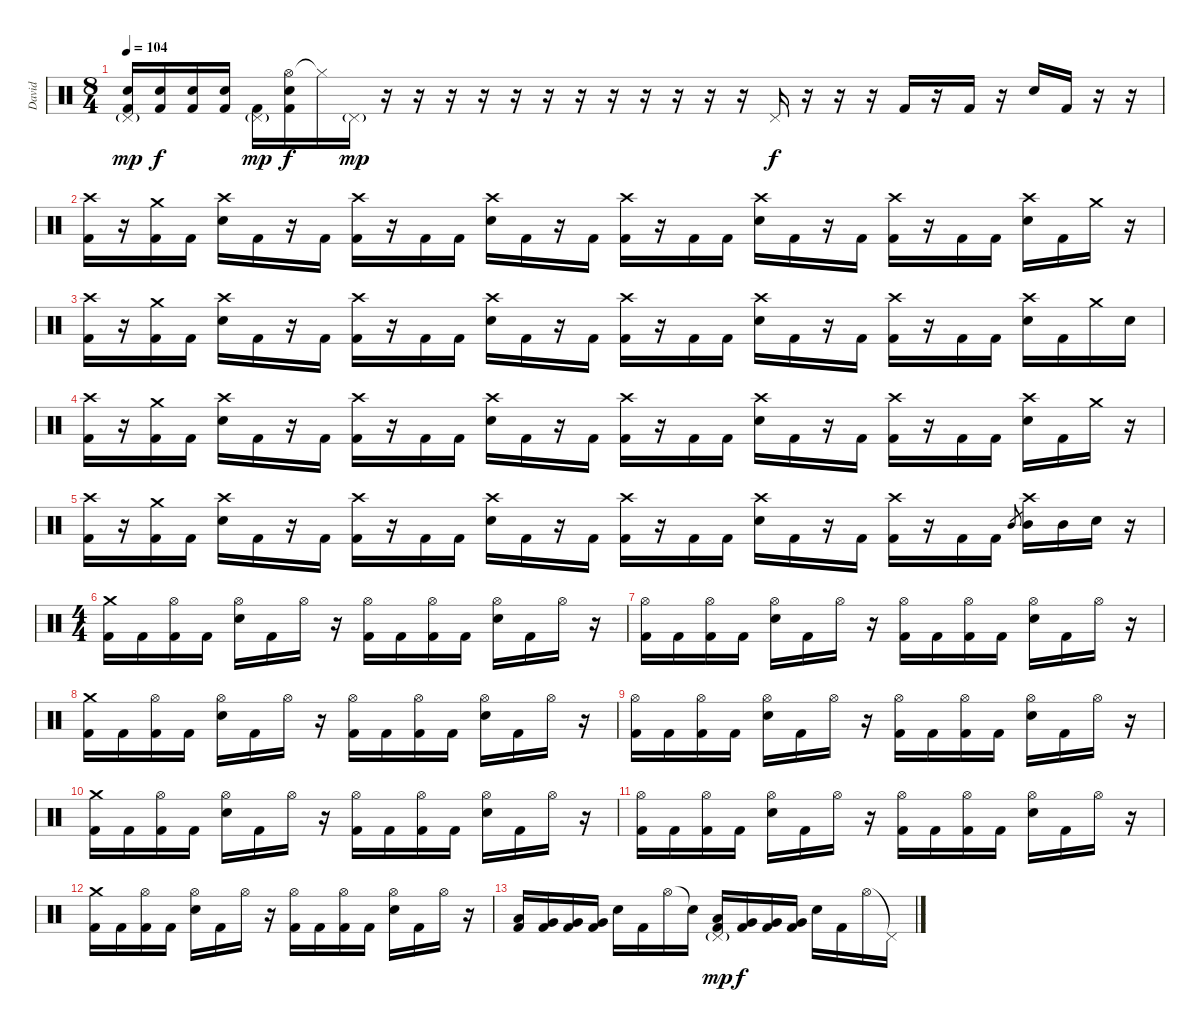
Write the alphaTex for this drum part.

\track ("David" "David") {instrument percussion}
\staff {score}
\articulation defaults
\ts (8 4)
\tempo 104
\clef neutral
\ks c
("Pedal Hi-Hat (hit)"{g} "Snare (hit) 2" "Kick (hit) 2").16{dy mp} ("Snare (hit) 2" "Kick (hit) 2").16{dy f} ("Snare (hit) 2" "Kick (hit) 2").16 ("Snare (hit) 2" "Kick (hit) 2").16 ("Pedal Hi-Hat (hit)"{g} "Kick (hit) 2").16{dy mp} ("Hi-Hat (open)" "Snare (hit) 2" "Kick (hit) 2").16{dy f} "Hi-Hat (closed)"{t}.16 "Pedal Hi-Hat (hit)"{g}.16{dy mp} r.16 r.16 r.16 r.16 r.16 r.16 r.16 r.16 r.16 r.16 r.16 r.16 "Pedal Hi-Hat (hit)".16{dy f} r.16 r.16 r.16 "Kick (hit) 2".16 r.16 "Kick (hit) 2".16 r.16 "Snare (hit) 2".16 "Kick (hit) 2".16 r.16 r.16 |
("Crash high (hit)" "Kick (hit) 2").16 r.16 ("Crash medium (hit)" "Kick (hit) 2").16 "Kick (hit) 2".16 ("Crash high (hit)" "Snare (hit) 2").16 "Kick (hit) 2".16 r.16 "Kick (hit) 2".16 ("Crash high (hit)" "Kick (hit) 2").16 r.16 "Kick (hit) 2".16 "Kick (hit) 2".16 ("Crash high (hit)" "Snare (hit) 2").16 "Kick (hit) 2".16 r.16 "Kick (hit) 2".16 ("Crash high (hit)" "Kick (hit) 2").16 r.16 "Kick (hit) 2".16 "Kick (hit) 2".16 ("Crash high (hit)" "Snare (hit) 2").16 "Kick (hit) 2".16 r.16 "Kick (hit) 2".16 ("Crash high (hit)" "Kick (hit) 2").16 r.16 "Kick (hit) 2".16 "Kick (hit) 2".16 ("Crash high (hit)" "Snare (hit) 2").16 "Kick (hit) 2".16 "Crash medium (hit)".16 r.16 |
("Crash high (hit)" "Kick (hit) 2").16 r.16 ("Crash medium (hit)" "Kick (hit) 2").16 "Kick (hit) 2".16 ("Crash high (hit)" "Snare (hit) 2").16 "Kick (hit) 2".16 r.16 "Kick (hit) 2".16 ("Crash high (hit)" "Kick (hit) 2").16 r.16 "Kick (hit) 2".16 "Kick (hit) 2".16 ("Crash high (hit)" "Snare (hit) 2").16 "Kick (hit) 2".16 r.16 "Kick (hit) 2".16 ("Crash high (hit)" "Kick (hit) 2").16 r.16 "Kick (hit) 2".16 "Kick (hit) 2".16 ("Crash high (hit)" "Snare (hit) 2").16 "Kick (hit) 2".16 r.16 "Kick (hit) 2".16 ("Crash high (hit)" "Kick (hit) 2").16 r.16 "Kick (hit) 2".16 "Kick (hit) 2".16 ("Crash high (hit)" "Snare (hit) 2").16 "Kick (hit) 2".16 "Crash medium (hit)".16 "Snare (hit) 2".16 |
("Crash high (hit)" "Kick (hit) 2").16 r.16 ("Crash medium (hit)" "Kick (hit) 2").16 "Kick (hit) 2".16 ("Crash high (hit)" "Snare (hit) 2").16 "Kick (hit) 2".16 r.16 "Kick (hit) 2".16 ("Crash high (hit)" "Kick (hit) 2").16 r.16 "Kick (hit) 2".16 "Kick (hit) 2".16 ("Crash high (hit)" "Snare (hit) 2").16 "Kick (hit) 2".16 r.16 "Kick (hit) 2".16 ("Crash high (hit)" "Kick (hit) 2").16 r.16 "Kick (hit) 2".16 "Kick (hit) 2".16 ("Crash high (hit)" "Snare (hit) 2").16 "Kick (hit) 2".16 r.16 "Kick (hit) 2".16 ("Crash high (hit)" "Kick (hit) 2").16 r.16 "Kick (hit) 2".16 "Kick (hit) 2".16 ("Crash high (hit)" "Snare (hit) 2").16 "Kick (hit) 2".16 "Crash medium (hit)".16 r.16 |
("Crash high (hit)" "Kick (hit) 2").16 r.16 ("Crash medium (hit)" "Kick (hit) 2").16 "Kick (hit) 2".16 ("Crash high (hit)" "Snare (hit) 2").16 "Kick (hit) 2".16 r.16 "Kick (hit) 2".16 ("Crash high (hit)" "Kick (hit) 2").16 r.16 "Kick (hit) 2".16 "Kick (hit) 2".16 ("Crash high (hit)" "Snare (hit) 2").16 "Kick (hit) 2".16 r.16 "Kick (hit) 2".16 ("Crash high (hit)" "Kick (hit) 2").16 r.16 "Kick (hit) 2".16 "Kick (hit) 2".16 ("Crash high (hit)" "Snare (hit) 2").16 "Kick (hit) 2".16 r.16 "Kick (hit) 2".16 ("Crash high (hit)" "Kick (hit) 2").16 r.16 "Kick (hit) 2".16 "Kick (hit) 2".16 "Mid Tom (hit)".8{gr} ("Crash high (hit)" "Mid Tom (hit)").16 "Mid Tom (hit)".16 "Snare (hit) 2".16 r.16 |
\ts (4 4)
("Crash medium (hit)" "Kick (hit) 2").16 "Kick (hit) 2".16 ("Hi-Hat (open)" "Kick (hit) 2").16 "Kick (hit) 2".16 ("Hi-Hat (open)" "Snare (hit) 2").16 "Kick (hit) 2".16 "Hi-Hat (open)".16 r.16 ("Hi-Hat (open)" "Kick (hit) 2").16 "Kick (hit) 2".16 ("Hi-Hat (open)" "Kick (hit) 2").16 "Kick (hit) 2".16 ("Hi-Hat (open)" "Snare (hit) 2").16 "Kick (hit) 2".16 "Hi-Hat (open)".16 r.16 |
("Hi-Hat (open)" "Kick (hit) 2").16 "Kick (hit) 2".16 ("Hi-Hat (open)" "Kick (hit) 2").16 "Kick (hit) 2".16 ("Hi-Hat (open)" "Snare (hit) 2").16 "Kick (hit) 2".16 "Hi-Hat (open)".16 r.16 ("Hi-Hat (open)" "Kick (hit) 2").16 "Kick (hit) 2".16 ("Hi-Hat (open)" "Kick (hit) 2").16 "Kick (hit) 2".16 ("Hi-Hat (open)" "Snare (hit) 2").16 "Kick (hit) 2".16 "Hi-Hat (open)".16 r.16 |
("Crash medium (hit)" "Kick (hit) 2").16 "Kick (hit) 2".16 ("Hi-Hat (open)" "Kick (hit) 2").16 "Kick (hit) 2".16 ("Hi-Hat (open)" "Snare (hit) 2").16 "Kick (hit) 2".16 "Hi-Hat (open)".16 r.16 ("Hi-Hat (open)" "Kick (hit) 2").16 "Kick (hit) 2".16 ("Hi-Hat (open)" "Kick (hit) 2").16 "Kick (hit) 2".16 ("Hi-Hat (open)" "Snare (hit) 2").16 "Kick (hit) 2".16 "Hi-Hat (open)".16 r.16 |
("Hi-Hat (open)" "Kick (hit) 2").16 "Kick (hit) 2".16 ("Hi-Hat (open)" "Kick (hit) 2").16 "Kick (hit) 2".16 ("Hi-Hat (open)" "Snare (hit) 2").16 "Kick (hit) 2".16 "Hi-Hat (open)".16 r.16 ("Hi-Hat (open)" "Kick (hit) 2").16 "Kick (hit) 2".16 ("Hi-Hat (open)" "Kick (hit) 2").16 "Kick (hit) 2".16 ("Hi-Hat (open)" "Snare (hit) 2").16 "Kick (hit) 2".16 "Hi-Hat (open)".16 r.16 |
("Crash medium (hit)" "Kick (hit) 2").16 "Kick (hit) 2".16 ("Hi-Hat (open)" "Kick (hit) 2").16 "Kick (hit) 2".16 ("Hi-Hat (open)" "Snare (hit) 2").16 "Kick (hit) 2".16 "Hi-Hat (open)".16 r.16 ("Hi-Hat (open)" "Kick (hit) 2").16 "Kick (hit) 2".16 ("Hi-Hat (open)" "Kick (hit) 2").16 "Kick (hit) 2".16 ("Hi-Hat (open)" "Snare (hit) 2").16 "Kick (hit) 2".16 "Hi-Hat (open)".16 r.16 |
("Hi-Hat (open)" "Kick (hit) 2").16 "Kick (hit) 2".16 ("Hi-Hat (open)" "Kick (hit) 2").16 "Kick (hit) 2".16 ("Hi-Hat (open)" "Snare (hit) 2").16 "Kick (hit) 2".16 "Hi-Hat (open)".16 r.16 ("Hi-Hat (open)" "Kick (hit) 2").16 "Kick (hit) 2".16 ("Hi-Hat (open)" "Kick (hit) 2").16 "Kick (hit) 2".16 ("Hi-Hat (open)" "Snare (hit) 2").16 "Kick (hit) 2".16 "Hi-Hat (open)".16 r.16 |
("Crash medium (hit)" "Kick (hit) 2").16 "Kick (hit) 2".16 ("Hi-Hat (open)" "Kick (hit) 2").16 "Kick (hit) 2".16 ("Hi-Hat (open)" "Snare (hit) 2").16 "Kick (hit) 2".16 "Hi-Hat (open)".16 r.16 ("Hi-Hat (open)" "Kick (hit) 2").16 "Kick (hit) 2".16 ("Hi-Hat (open)" "Kick (hit) 2").16 "Kick (hit) 2".16 ("Hi-Hat (open)" "Snare (hit) 2").16 "Kick (hit) 2".16 "Hi-Hat (open)".16 r.16 |
("Low Tom (hit)" "Kick (hit) 2").16 ("Very Low Tom (hit)" "Kick (hit) 2").16 ("Very Low Tom (hit)" "Kick (hit) 2").16 ("Very Low Tom (hit)" "Kick (hit) 2").16 "Snare (hit) 2".16 "Kick (hit) 2".16 "Hi-Hat (open)".16 "Snare (hit)"{t}.16 ("Pedal Hi-Hat (hit)"{g} "Low Tom (hit)" "Kick (hit) 2").16{dy mp} ("Very Low Tom (hit)" "Kick (hit) 2").16{dy f} ("Very Low Tom (hit)" "Kick (hit) 2").16 ("Very Low Tom (hit)" "Kick (hit) 2").16 "Snare (hit) 2".16 "Kick (hit) 2".16 "Hi-Hat (open)".16 "Pedal Hi-Hat (hit)"{t}.16
